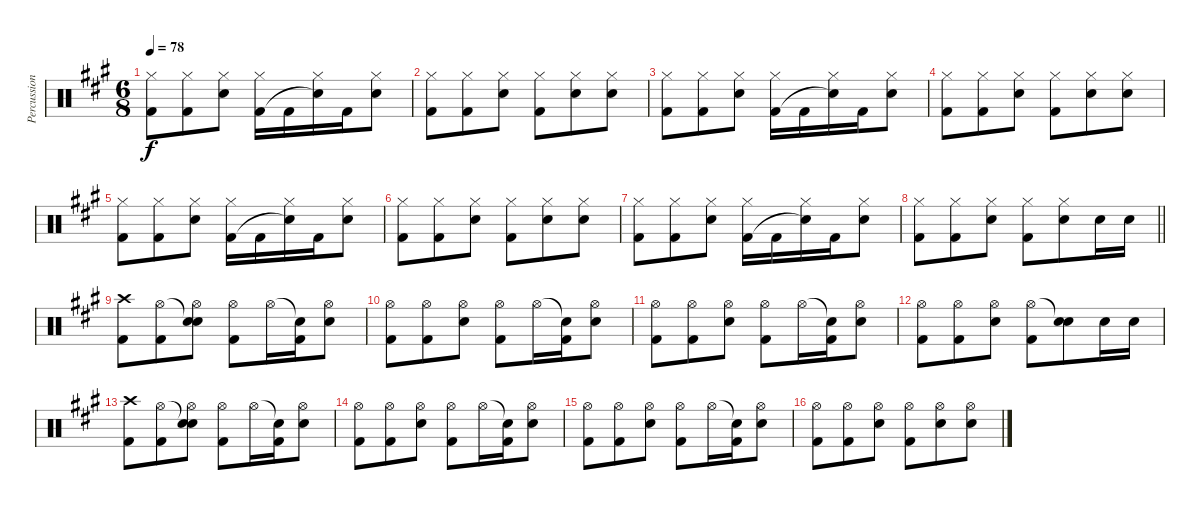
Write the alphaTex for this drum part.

\track ("Percussions" "Percussion") {instrument percussion}
\staff {score}
\articulation defaults
\ts (6 8)
\tempo 78
\clef neutral
\ks a
("Hi-Hat (closed)" "Kick (hit) 2").8{dy f} ("Hi-Hat (closed)" "Kick (hit) 2").8 ("Hi-Hat (closed)" "Snare (hit) 2").8 ("Hi-Hat (closed)" "Kick (hit) 2").16 "Kick (hit) 2".16 ("Hi-Hat (closed)" "Snare (hit)"{t}).16 "Kick (hit) 2".16 ("Hi-Hat (closed)" "Snare (hit) 2").8 |
("Hi-Hat (closed)" "Kick (hit) 2").8 ("Hi-Hat (closed)" "Kick (hit) 2").8 ("Hi-Hat (closed)" "Snare (hit) 2").8 ("Hi-Hat (closed)" "Kick (hit) 2").8 ("Hi-Hat (closed)" "Snare (hit) 2").8 ("Hi-Hat (closed)" "Snare (hit) 2").8 |
("Hi-Hat (closed)" "Kick (hit) 2").8 ("Hi-Hat (closed)" "Kick (hit) 2").8 ("Hi-Hat (closed)" "Snare (hit) 2").8 ("Hi-Hat (closed)" "Kick (hit) 2").16 "Kick (hit) 2".16 ("Hi-Hat (closed)" "Snare (hit)"{t}).16 "Kick (hit) 2".16 ("Hi-Hat (closed)" "Snare (hit) 2").8 |
("Hi-Hat (closed)" "Kick (hit) 2").8 ("Hi-Hat (closed)" "Kick (hit) 2").8 ("Hi-Hat (closed)" "Snare (hit) 2").8 ("Hi-Hat (closed)" "Kick (hit) 2").8 ("Hi-Hat (closed)" "Snare (hit) 2").8 ("Hi-Hat (closed)" "Snare (hit) 2").8 |
("Hi-Hat (closed)" "Kick (hit) 2").8 ("Hi-Hat (closed)" "Kick (hit) 2").8 ("Hi-Hat (closed)" "Snare (hit) 2").8 ("Hi-Hat (closed)" "Kick (hit) 2").16 "Kick (hit) 2".16 ("Hi-Hat (closed)" "Snare (hit)"{t}).16 "Kick (hit) 2".16 ("Hi-Hat (closed)" "Snare (hit) 2").8 |
("Hi-Hat (closed)" "Kick (hit) 2").8 ("Hi-Hat (closed)" "Kick (hit) 2").8 ("Hi-Hat (closed)" "Snare (hit) 2").8 ("Hi-Hat (closed)" "Kick (hit) 2").8 ("Hi-Hat (closed)" "Snare (hit) 2").8 ("Hi-Hat (closed)" "Snare (hit) 2").8 |
("Hi-Hat (closed)" "Kick (hit) 2").8 ("Hi-Hat (closed)" "Kick (hit) 2").8 ("Hi-Hat (closed)" "Snare (hit) 2").8 ("Hi-Hat (closed)" "Kick (hit) 2").16 "Kick (hit) 2".16 ("Hi-Hat (closed)" "Snare (hit)"{t}).16 "Kick (hit) 2".16 ("Hi-Hat (closed)" "Snare (hit) 2").8 |
\barLineRight lightlight
("Hi-Hat (closed)" "Kick (hit) 2").8 ("Hi-Hat (closed)" "Kick (hit) 2").8 ("Hi-Hat (closed)" "Snare (hit) 2").8 ("Hi-Hat (closed)" "Kick (hit) 2").8 ("Hi-Hat (closed)" "Snare (hit) 2").8 "Snare (hit) 2".16 "Snare (hit) 2".16 |
("Crash high (hit)" "Kick (hit) 2").8 ("Hi-Hat (open)" "Kick (hit) 2").8 ("Snare (hit)"{t} "Hi-Hat (open)" "Snare (hit) 2").8 ("Hi-Hat (open)" "Kick (hit) 2").8 "Hi-Hat (open)".16 ("Snare (hit)"{t} "Kick (hit) 2").16 ("Hi-Hat (open)" "Snare (hit) 2").8 |
("Hi-Hat (open)" "Kick (hit) 2").8 ("Hi-Hat (open)" "Kick (hit) 2").8 ("Hi-Hat (open)" "Snare (hit) 2").8 ("Hi-Hat (open)" "Kick (hit) 2").8 "Hi-Hat (open)".16 ("Snare (hit)"{t} "Kick (hit) 2").16 ("Hi-Hat (open)" "Snare (hit) 2").8 |
("Hi-Hat (open)" "Kick (hit) 2").8 ("Hi-Hat (open)" "Kick (hit) 2").8 ("Hi-Hat (open)" "Snare (hit) 2").8 ("Hi-Hat (open)" "Kick (hit) 2").8 "Hi-Hat (open)".16 ("Snare (hit)"{t} "Kick (hit) 2").16 ("Hi-Hat (open)" "Snare (hit) 2").8 |
("Hi-Hat (open)" "Kick (hit) 2").8 ("Hi-Hat (open)" "Kick (hit) 2").8 ("Hi-Hat (open)" "Snare (hit) 2").8 ("Hi-Hat (open)" "Kick (hit) 2").8 ("Snare (hit)"{t} "Snare (hit) 2").8 "Snare (hit) 2".16 "Snare (hit) 2".16 |
("Crash high (hit)" "Kick (hit) 2").8 ("Hi-Hat (open)" "Kick (hit) 2").8 ("Snare (hit)"{t} "Hi-Hat (open)" "Snare (hit) 2").8 ("Hi-Hat (open)" "Kick (hit) 2").8 "Hi-Hat (open)".16 ("Snare (hit)"{t} "Kick (hit) 2").16 ("Hi-Hat (open)" "Snare (hit) 2").8 |
("Hi-Hat (open)" "Kick (hit) 2").8 ("Hi-Hat (open)" "Kick (hit) 2").8 ("Hi-Hat (open)" "Snare (hit) 2").8 ("Hi-Hat (open)" "Kick (hit) 2").8 "Hi-Hat (open)".16 ("Snare (hit)"{t} "Kick (hit) 2").16 ("Hi-Hat (open)" "Snare (hit) 2").8 |
("Hi-Hat (open)" "Kick (hit) 2").8 ("Hi-Hat (open)" "Kick (hit) 2").8 ("Hi-Hat (open)" "Snare (hit) 2").8 ("Hi-Hat (open)" "Kick (hit) 2").8 "Hi-Hat (open)".16 ("Snare (hit)"{t} "Kick (hit) 2").16 ("Hi-Hat (open)" "Snare (hit) 2").8 |
("Hi-Hat (open)" "Kick (hit) 2").8 ("Hi-Hat (open)" "Kick (hit) 2").8 ("Hi-Hat (open)" "Snare (hit) 2").8 ("Hi-Hat (open)" "Kick (hit) 2").8 ("Hi-Hat (open)" "Snare (hit) 2").8 ("Hi-Hat (open)" "Snare (hit) 2").8
